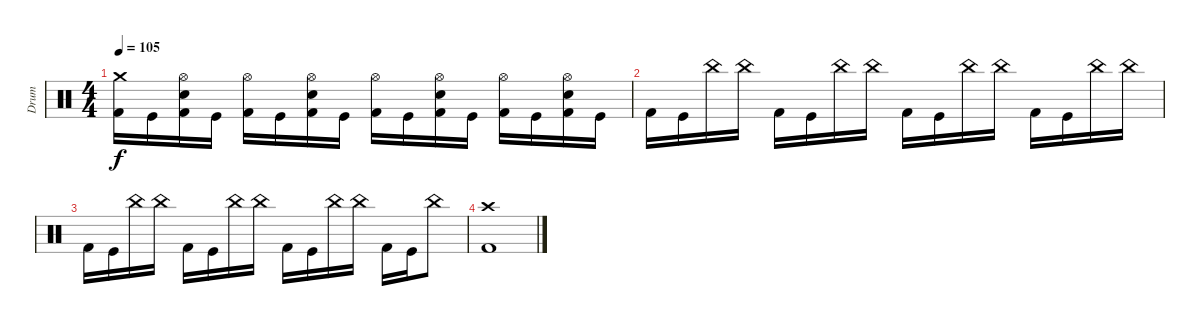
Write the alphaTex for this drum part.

\track ("Drum" "Drum") {instrument percussion}
\staff {score}
\articulation defaults
\ts (4 4)
\tempo 105
\clef neutral
\ks c
("Crash medium (hit)" "Kick (hit) 2").16{dy f} "Kick (hit)".16 ("Hi-Hat (open)" "Snare (hit) 2" "Kick (hit) 2").16 "Kick (hit)".16 ("Hi-Hat (open)" "Kick (hit) 2").16 "Kick (hit)".16 ("Hi-Hat (open)" "Snare (hit) 2" "Kick (hit) 2").16 "Kick (hit)".16 ("Hi-Hat (open)" "Kick (hit) 2").16 "Kick (hit)".16 ("Hi-Hat (open)" "Snare (hit) 2" "Kick (hit) 2").16 "Kick (hit)".16 ("Hi-Hat (open)" "Kick (hit) 2").16 "Kick (hit)".16 ("Hi-Hat (open)" "Snare (hit) 2" "Kick (hit) 2").16 "Kick (hit)".16 |
"Kick (hit) 2".16 "Kick (hit)".16 "China (hit)".16 "China (hit)".16 "Kick (hit) 2".16 "Kick (hit)".16 "China (hit)".16 "China (hit)".16 "Kick (hit) 2".16 "Kick (hit)".16 "China (hit)".16 "China (hit)".16 "Kick (hit) 2".16 "Kick (hit)".16 "China (hit)".16 "China (hit)".16 |
"Kick (hit) 2".16 "Kick (hit)".16 "China (hit)".16 "China (hit)".16 "Kick (hit) 2".16 "Kick (hit)".16 "China (hit)".16 "China (hit)".16 "Kick (hit) 2".16 "Kick (hit)".16 "China (hit)".16 "China (hit)".16 "Kick (hit) 2".16 "Kick (hit)".16 "China (hit)".8 |
("Crash high (hit)" "Kick (hit) 2").1
